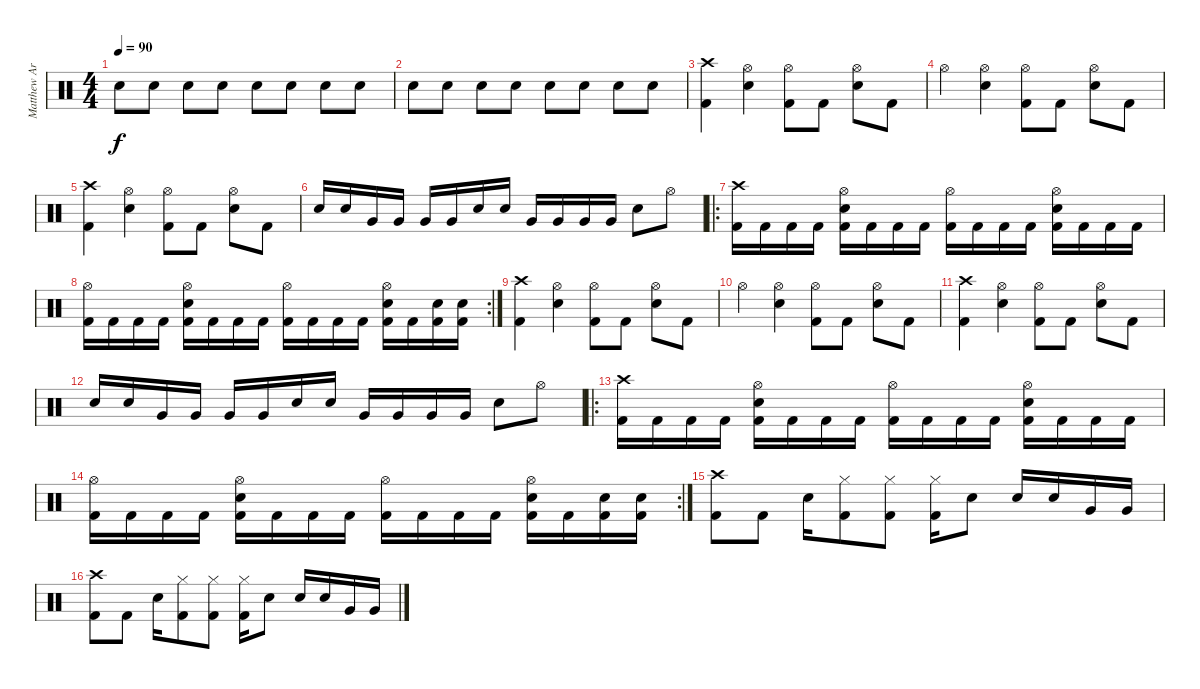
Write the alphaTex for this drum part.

\track ("Matthew Archer" "Matthew Ar") {instrument percussion}
\staff {score}
\articulation defaults
\ts (4 4)
\tempo 90
\clef neutral
\ks c "Electric Snare (hit)".8{dy f volume 3} "Electric Snare (hit)".8 "Electric Snare (hit)".8{volume 5} "Electric Snare (hit)".8 "Electric Snare (hit)".8{volume 7} "Electric Snare (hit)".8 "Electric Snare (hit)".8{volume 9} "Electric Snare (hit)".8
|
"Electric Snare (hit)".8{volume 11} "Electric Snare (hit)".8 "Electric Snare (hit)".8{volume 13} "Electric Snare (hit)".8 "Electric Snare (hit)".8{volume 15} "Electric Snare (hit)".8 "Electric Snare (hit)".8 "Electric Snare (hit)".8 |
("Crash high (hit)" "Kick (hit) 2").4 ("Hi-Hat (open)" "Electric Snare (hit)").4 ("Hi-Hat (open)" "Kick (hit) 2").8 "Kick (hit) 2".8 ("Hi-Hat (open)" "Electric Snare (hit)").8 "Kick (hit) 2".8 |
"Hi-Hat (open)".4 ("Hi-Hat (open)" "Electric Snare (hit)").4 ("Hi-Hat (open)" "Kick (hit) 2").8 "Kick (hit) 2".8 ("Hi-Hat (open)" "Electric Snare (hit)").8 "Kick (hit) 2".8 |
("Crash high (hit)" "Kick (hit) 2").4 ("Hi-Hat (open)" "Electric Snare (hit)").4 ("Hi-Hat (open)" "Kick (hit) 2").8 "Kick (hit) 2".8 ("Hi-Hat (open)" "Electric Snare (hit)").8 "Kick (hit) 2".8 |
"Electric Snare (hit)".16 "Electric Snare (hit)".16 "Very Low Tom (hit)".16 "Very Low Tom (hit)".16 "Very Low Tom (hit)".16 "Very Low Tom (hit)".16 "Electric Snare (hit)".16 "Electric Snare (hit)".16 "Very Low Tom (hit)".16 "Very Low Tom (hit)".16 "Very Low Tom (hit)".16 "Very Low Tom (hit)".16 "Electric Snare (hit)".8 "Hi-Hat (open)".8 |
\ro
("Crash high (hit)" "Kick (hit) 2").16 "Kick (hit) 2".16 "Kick (hit) 2".16 "Kick (hit) 2".16 ("Hi-Hat (open)" "Electric Snare (hit)" "Kick (hit) 2").16 "Kick (hit) 2".16 "Kick (hit) 2".16 "Kick (hit) 2".16 ("Hi-Hat (open)" "Kick (hit) 2").16 "Kick (hit) 2".16 "Kick (hit) 2".16 "Kick (hit) 2".16 ("Hi-Hat (open)" "Electric Snare (hit)" "Kick (hit) 2").16 "Kick (hit) 2".16 "Kick (hit) 2".16 "Kick (hit) 2".16 |
\rc 2
("Hi-Hat (open)" "Kick (hit) 2").16 "Kick (hit) 2".16 "Kick (hit) 2".16 "Kick (hit) 2".16 ("Hi-Hat (open)" "Electric Snare (hit)" "Kick (hit) 2").16 "Kick (hit) 2".16 "Kick (hit) 2".16 "Kick (hit) 2".16 ("Hi-Hat (open)" "Kick (hit) 2").16 "Kick (hit) 2".16 "Kick (hit) 2".16 "Kick (hit) 2".16 ("Hi-Hat (open)" "Electric Snare (hit)" "Kick (hit) 2").16 "Kick (hit) 2".16 ("Electric Snare (hit)" "Kick (hit) 2").16 ("Electric Snare (hit)" "Kick (hit) 2").16 |
("Crash high (hit)" "Kick (hit) 2").4 ("Hi-Hat (open)" "Electric Snare (hit)").4 ("Hi-Hat (open)" "Kick (hit) 2").8 "Kick (hit) 2".8 ("Hi-Hat (open)" "Electric Snare (hit)").8 "Kick (hit) 2".8 |
"Hi-Hat (open)".4 ("Hi-Hat (open)" "Electric Snare (hit)").4 ("Hi-Hat (open)" "Kick (hit) 2").8 "Kick (hit) 2".8 ("Hi-Hat (open)" "Electric Snare (hit)").8 "Kick (hit) 2".8 |
("Crash high (hit)" "Kick (hit) 2").4 ("Hi-Hat (open)" "Electric Snare (hit)").4 ("Hi-Hat (open)" "Kick (hit) 2").8 "Kick (hit) 2".8 ("Hi-Hat (open)" "Electric Snare (hit)").8 "Kick (hit) 2".8 |
"Electric Snare (hit)".16 "Electric Snare (hit)".16 "Very Low Tom (hit)".16 "Very Low Tom (hit)".16 "Very Low Tom (hit)".16 "Very Low Tom (hit)".16 "Electric Snare (hit)".16 "Electric Snare (hit)".16 "Very Low Tom (hit)".16 "Very Low Tom (hit)".16 "Very Low Tom (hit)".16 "Very Low Tom (hit)".16 "Electric Snare (hit)".8 "Hi-Hat (open)".8 |
\ro
("Crash high (hit)" "Kick (hit) 2").16 "Kick (hit) 2".16 "Kick (hit) 2".16 "Kick (hit) 2".16 ("Hi-Hat (open)" "Electric Snare (hit)" "Kick (hit) 2").16 "Kick (hit) 2".16 "Kick (hit) 2".16 "Kick (hit) 2".16 ("Hi-Hat (open)" "Kick (hit) 2").16 "Kick (hit) 2".16 "Kick (hit) 2".16 "Kick (hit) 2".16 ("Hi-Hat (open)" "Electric Snare (hit)" "Kick (hit) 2").16 "Kick (hit) 2".16 "Kick (hit) 2".16 "Kick (hit) 2".16 |
\rc 2
("Hi-Hat (open)" "Kick (hit) 2").16 "Kick (hit) 2".16 "Kick (hit) 2".16 "Kick (hit) 2".16 ("Hi-Hat (open)" "Electric Snare (hit)" "Kick (hit) 2").16 "Kick (hit) 2".16 "Kick (hit) 2".16 "Kick (hit) 2".16 ("Hi-Hat (open)" "Kick (hit) 2").16 "Kick (hit) 2".16 "Kick (hit) 2".16 "Kick (hit) 2".16 ("Hi-Hat (open)" "Electric Snare (hit)" "Kick (hit) 2").16 "Kick (hit) 2".16 ("Electric Snare (hit)" "Kick (hit) 2").16 ("Electric Snare (hit)" "Kick (hit) 2").16 |
("Crash high (hit)" "Kick (hit) 2").8 "Kick (hit) 2".8 "Electric Snare (hit)".16 ("Hi-Hat (closed)" "Kick (hit) 2").8 ("Hi-Hat (closed)" "Kick (hit) 2").8 ("Hi-Hat (closed)" "Kick (hit) 2").16 "Electric Snare (hit)".8 "Electric Snare (hit)".16 "Electric Snare (hit)".16 "Very Low Tom (hit)".16 "Very Low Tom (hit)".16 |
("Crash high (hit)" "Kick (hit) 2").8 "Kick (hit) 2".8 "Electric Snare (hit)".16 ("Hi-Hat (closed)" "Kick (hit) 2").8 ("Hi-Hat (closed)" "Kick (hit) 2").8 ("Hi-Hat (closed)" "Kick (hit) 2").16 "Electric Snare (hit)".8 "Electric Snare (hit)".16 "Electric Snare (hit)".16 "Very Low Tom (hit)".16 "Very Low Tom (hit)".16
